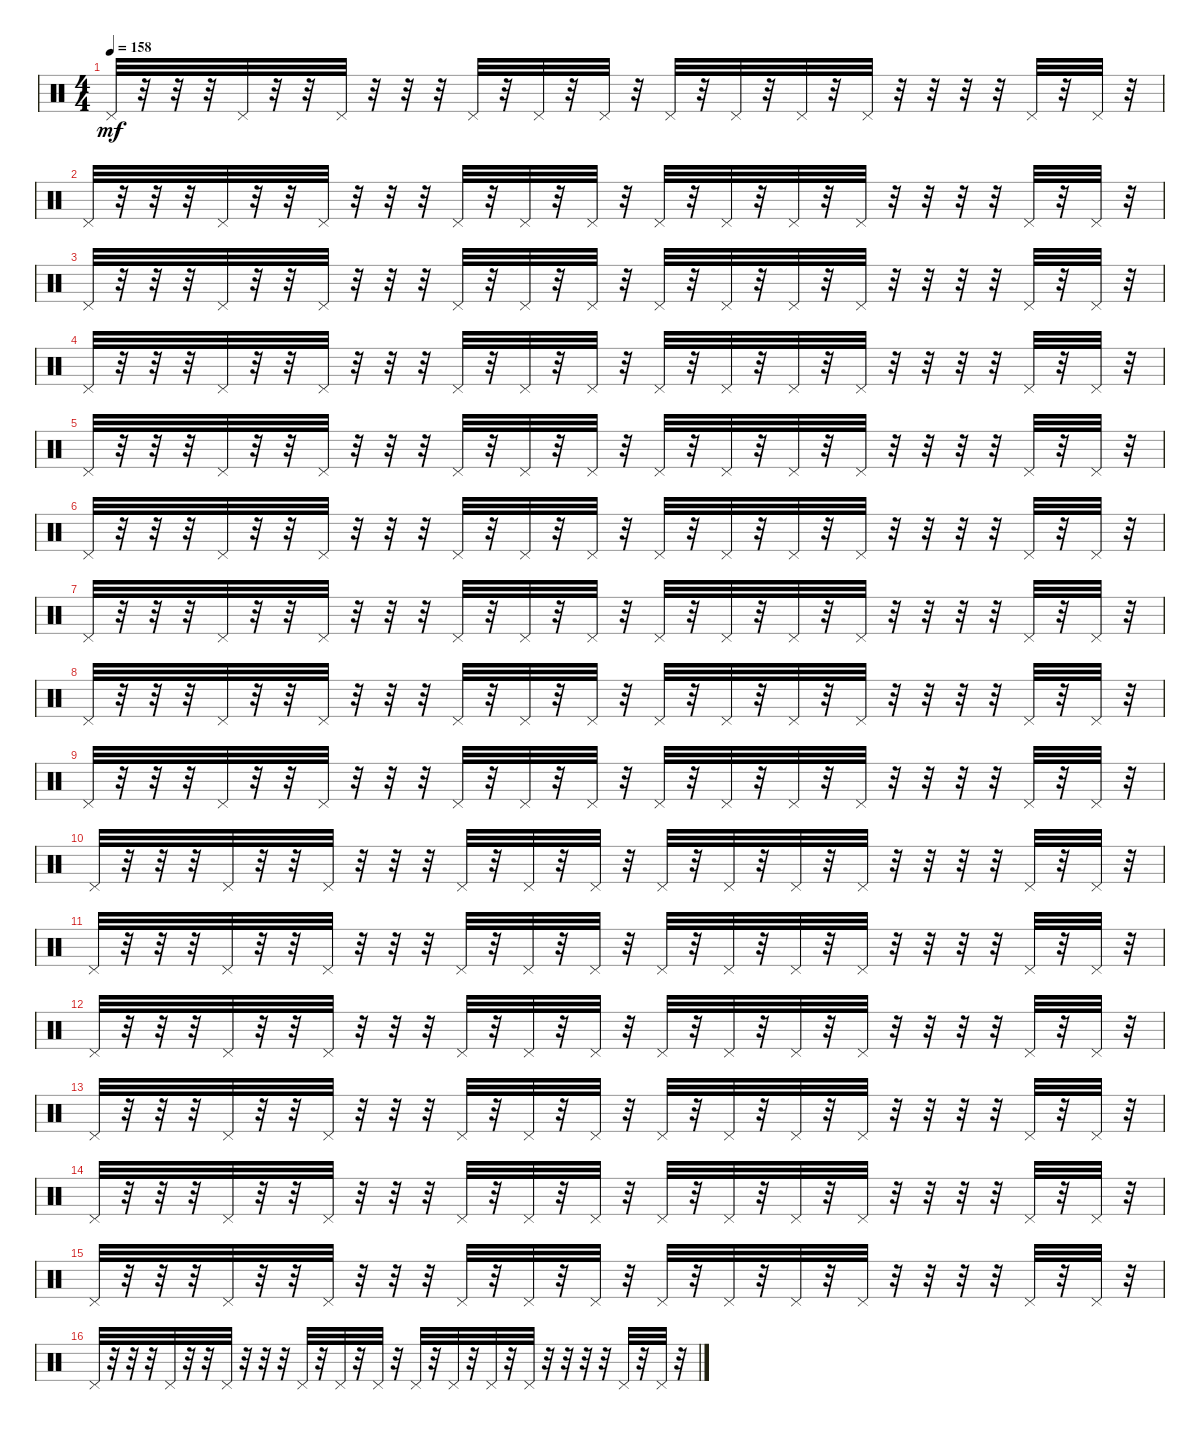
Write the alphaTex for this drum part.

\track ("   " "   ") {instrument percussion}
\staff
\articulation defaults
\ts (4 4)
\tempo 158
\clef neutral
\ks c "Pedal Hi-Hat (hit)".32{dy mf}
r.32 r.32 r.32 "Pedal Hi-Hat (hit)".32 r.32 r.32 "Pedal Hi-Hat (hit)".32 r.32 r.32 r.32 "Pedal Hi-Hat (hit)".32 r.32 "Pedal Hi-Hat (hit)".32 r.32 "Pedal Hi-Hat (hit)".32 r.32 "Pedal Hi-Hat (hit)".32 r.32 "Pedal Hi-Hat (hit)".32 r.32 "Pedal Hi-Hat (hit)".32 r.32 "Pedal Hi-Hat (hit)".32 r.32 r.32 r.32 r.32 "Pedal Hi-Hat (hit)".32 r.32 "Pedal Hi-Hat (hit)".32 r.32 |
"Pedal Hi-Hat (hit)".32 r.32 r.32 r.32 "Pedal Hi-Hat (hit)".32 r.32 r.32 "Pedal Hi-Hat (hit)".32 r.32 r.32 r.32 "Pedal Hi-Hat (hit)".32 r.32 "Pedal Hi-Hat (hit)".32 r.32 "Pedal Hi-Hat (hit)".32 r.32 "Pedal Hi-Hat (hit)".32 r.32 "Pedal Hi-Hat (hit)".32 r.32 "Pedal Hi-Hat (hit)".32 r.32 "Pedal Hi-Hat (hit)".32 r.32 r.32 r.32 r.32 "Pedal Hi-Hat (hit)".32 r.32 "Pedal Hi-Hat (hit)".32 r.32 |
"Pedal Hi-Hat (hit)".32 r.32 r.32 r.32 "Pedal Hi-Hat (hit)".32 r.32 r.32 "Pedal Hi-Hat (hit)".32 r.32 r.32 r.32 "Pedal Hi-Hat (hit)".32 r.32 "Pedal Hi-Hat (hit)".32 r.32 "Pedal Hi-Hat (hit)".32 r.32 "Pedal Hi-Hat (hit)".32 r.32 "Pedal Hi-Hat (hit)".32 r.32 "Pedal Hi-Hat (hit)".32 r.32 "Pedal Hi-Hat (hit)".32 r.32 r.32 r.32 r.32 "Pedal Hi-Hat (hit)".32 r.32 "Pedal Hi-Hat (hit)".32 r.32 |
"Pedal Hi-Hat (hit)".32 r.32 r.32 r.32 "Pedal Hi-Hat (hit)".32 r.32 r.32 "Pedal Hi-Hat (hit)".32 r.32 r.32 r.32 "Pedal Hi-Hat (hit)".32 r.32 "Pedal Hi-Hat (hit)".32 r.32 "Pedal Hi-Hat (hit)".32 r.32 "Pedal Hi-Hat (hit)".32 r.32 "Pedal Hi-Hat (hit)".32 r.32 "Pedal Hi-Hat (hit)".32 r.32 "Pedal Hi-Hat (hit)".32 r.32 r.32 r.32 r.32 "Pedal Hi-Hat (hit)".32 r.32 "Pedal Hi-Hat (hit)".32 r.32 |
"Pedal Hi-Hat (hit)".32 r.32 r.32 r.32 "Pedal Hi-Hat (hit)".32 r.32 r.32 "Pedal Hi-Hat (hit)".32 r.32 r.32 r.32 "Pedal Hi-Hat (hit)".32 r.32 "Pedal Hi-Hat (hit)".32 r.32 "Pedal Hi-Hat (hit)".32 r.32 "Pedal Hi-Hat (hit)".32 r.32 "Pedal Hi-Hat (hit)".32 r.32 "Pedal Hi-Hat (hit)".32 r.32 "Pedal Hi-Hat (hit)".32 r.32 r.32 r.32 r.32 "Pedal Hi-Hat (hit)".32 r.32 "Pedal Hi-Hat (hit)".32 r.32 |
"Pedal Hi-Hat (hit)".32 r.32 r.32 r.32 "Pedal Hi-Hat (hit)".32 r.32 r.32 "Pedal Hi-Hat (hit)".32 r.32 r.32 r.32 "Pedal Hi-Hat (hit)".32 r.32 "Pedal Hi-Hat (hit)".32 r.32 "Pedal Hi-Hat (hit)".32 r.32 "Pedal Hi-Hat (hit)".32 r.32 "Pedal Hi-Hat (hit)".32 r.32 "Pedal Hi-Hat (hit)".32 r.32 "Pedal Hi-Hat (hit)".32 r.32 r.32 r.32 r.32 "Pedal Hi-Hat (hit)".32 r.32 "Pedal Hi-Hat (hit)".32 r.32 |
"Pedal Hi-Hat (hit)".32 r.32 r.32 r.32 "Pedal Hi-Hat (hit)".32 r.32 r.32 "Pedal Hi-Hat (hit)".32 r.32 r.32 r.32 "Pedal Hi-Hat (hit)".32 r.32 "Pedal Hi-Hat (hit)".32 r.32 "Pedal Hi-Hat (hit)".32 r.32 "Pedal Hi-Hat (hit)".32 r.32 "Pedal Hi-Hat (hit)".32 r.32 "Pedal Hi-Hat (hit)".32 r.32 "Pedal Hi-Hat (hit)".32 r.32 r.32 r.32 r.32 "Pedal Hi-Hat (hit)".32 r.32 "Pedal Hi-Hat (hit)".32 r.32 |
"Pedal Hi-Hat (hit)".32 r.32 r.32 r.32 "Pedal Hi-Hat (hit)".32 r.32 r.32 "Pedal Hi-Hat (hit)".32 r.32 r.32 r.32 "Pedal Hi-Hat (hit)".32 r.32 "Pedal Hi-Hat (hit)".32 r.32 "Pedal Hi-Hat (hit)".32 r.32 "Pedal Hi-Hat (hit)".32 r.32 "Pedal Hi-Hat (hit)".32 r.32 "Pedal Hi-Hat (hit)".32 r.32 "Pedal Hi-Hat (hit)".32 r.32 r.32 r.32 r.32 "Pedal Hi-Hat (hit)".32 r.32 "Pedal Hi-Hat (hit)".32 r.32 |
"Pedal Hi-Hat (hit)".32 r.32 r.32 r.32 "Pedal Hi-Hat (hit)".32 r.32 r.32 "Pedal Hi-Hat (hit)".32 r.32 r.32 r.32 "Pedal Hi-Hat (hit)".32 r.32 "Pedal Hi-Hat (hit)".32 r.32 "Pedal Hi-Hat (hit)".32 r.32 "Pedal Hi-Hat (hit)".32 r.32 "Pedal Hi-Hat (hit)".32 r.32 "Pedal Hi-Hat (hit)".32 r.32 "Pedal Hi-Hat (hit)".32 r.32 r.32 r.32 r.32 "Pedal Hi-Hat (hit)".32 r.32 "Pedal Hi-Hat (hit)".32 r.32 |
"Pedal Hi-Hat (hit)".32 r.32 r.32 r.32 "Pedal Hi-Hat (hit)".32 r.32 r.32 "Pedal Hi-Hat (hit)".32 r.32 r.32 r.32 "Pedal Hi-Hat (hit)".32 r.32 "Pedal Hi-Hat (hit)".32 r.32 "Pedal Hi-Hat (hit)".32 r.32 "Pedal Hi-Hat (hit)".32 r.32 "Pedal Hi-Hat (hit)".32 r.32 "Pedal Hi-Hat (hit)".32 r.32 "Pedal Hi-Hat (hit)".32 r.32 r.32 r.32 r.32 "Pedal Hi-Hat (hit)".32 r.32 "Pedal Hi-Hat (hit)".32 r.32 |
"Pedal Hi-Hat (hit)".32 r.32 r.32 r.32 "Pedal Hi-Hat (hit)".32 r.32 r.32 "Pedal Hi-Hat (hit)".32 r.32 r.32 r.32 "Pedal Hi-Hat (hit)".32 r.32 "Pedal Hi-Hat (hit)".32 r.32 "Pedal Hi-Hat (hit)".32 r.32 "Pedal Hi-Hat (hit)".32 r.32 "Pedal Hi-Hat (hit)".32 r.32 "Pedal Hi-Hat (hit)".32 r.32 "Pedal Hi-Hat (hit)".32 r.32 r.32 r.32 r.32 "Pedal Hi-Hat (hit)".32 r.32 "Pedal Hi-Hat (hit)".32 r.32 |
"Pedal Hi-Hat (hit)".32 r.32 r.32 r.32 "Pedal Hi-Hat (hit)".32 r.32 r.32 "Pedal Hi-Hat (hit)".32 r.32 r.32 r.32 "Pedal Hi-Hat (hit)".32 r.32 "Pedal Hi-Hat (hit)".32 r.32 "Pedal Hi-Hat (hit)".32 r.32 "Pedal Hi-Hat (hit)".32 r.32 "Pedal Hi-Hat (hit)".32 r.32 "Pedal Hi-Hat (hit)".32 r.32 "Pedal Hi-Hat (hit)".32 r.32 r.32 r.32 r.32 "Pedal Hi-Hat (hit)".32 r.32 "Pedal Hi-Hat (hit)".32 r.32 |
"Pedal Hi-Hat (hit)".32 r.32 r.32 r.32 "Pedal Hi-Hat (hit)".32 r.32 r.32 "Pedal Hi-Hat (hit)".32 r.32 r.32 r.32 "Pedal Hi-Hat (hit)".32 r.32 "Pedal Hi-Hat (hit)".32 r.32 "Pedal Hi-Hat (hit)".32 r.32 "Pedal Hi-Hat (hit)".32 r.32 "Pedal Hi-Hat (hit)".32 r.32 "Pedal Hi-Hat (hit)".32 r.32 "Pedal Hi-Hat (hit)".32 r.32 r.32 r.32 r.32 "Pedal Hi-Hat (hit)".32 r.32 "Pedal Hi-Hat (hit)".32 r.32 |
"Pedal Hi-Hat (hit)".32 r.32 r.32 r.32 "Pedal Hi-Hat (hit)".32 r.32 r.32 "Pedal Hi-Hat (hit)".32 r.32 r.32 r.32 "Pedal Hi-Hat (hit)".32 r.32 "Pedal Hi-Hat (hit)".32 r.32 "Pedal Hi-Hat (hit)".32 r.32 "Pedal Hi-Hat (hit)".32 r.32 "Pedal Hi-Hat (hit)".32 r.32 "Pedal Hi-Hat (hit)".32 r.32 "Pedal Hi-Hat (hit)".32 r.32 r.32 r.32 r.32 "Pedal Hi-Hat (hit)".32 r.32 "Pedal Hi-Hat (hit)".32 r.32 |
"Pedal Hi-Hat (hit)".32 r.32 r.32 r.32 "Pedal Hi-Hat (hit)".32 r.32 r.32 "Pedal Hi-Hat (hit)".32 r.32 r.32 r.32 "Pedal Hi-Hat (hit)".32 r.32 "Pedal Hi-Hat (hit)".32 r.32 "Pedal Hi-Hat (hit)".32 r.32 "Pedal Hi-Hat (hit)".32 r.32 "Pedal Hi-Hat (hit)".32 r.32 "Pedal Hi-Hat (hit)".32 r.32 "Pedal Hi-Hat (hit)".32 r.32 r.32 r.32 r.32 "Pedal Hi-Hat (hit)".32 r.32 "Pedal Hi-Hat (hit)".32 r.32 |
"Pedal Hi-Hat (hit)".32 r.32 r.32 r.32 "Pedal Hi-Hat (hit)".32 r.32 r.32 "Pedal Hi-Hat (hit)".32 r.32 r.32 r.32 "Pedal Hi-Hat (hit)".32 r.32 "Pedal Hi-Hat (hit)".32 r.32 "Pedal Hi-Hat (hit)".32 r.32 "Pedal Hi-Hat (hit)".32 r.32 "Pedal Hi-Hat (hit)".32 r.32 "Pedal Hi-Hat (hit)".32 r.32 "Pedal Hi-Hat (hit)".32 r.32 r.32 r.32 r.32 "Pedal Hi-Hat (hit)".32 r.32 "Pedal Hi-Hat (hit)".32 r.32
